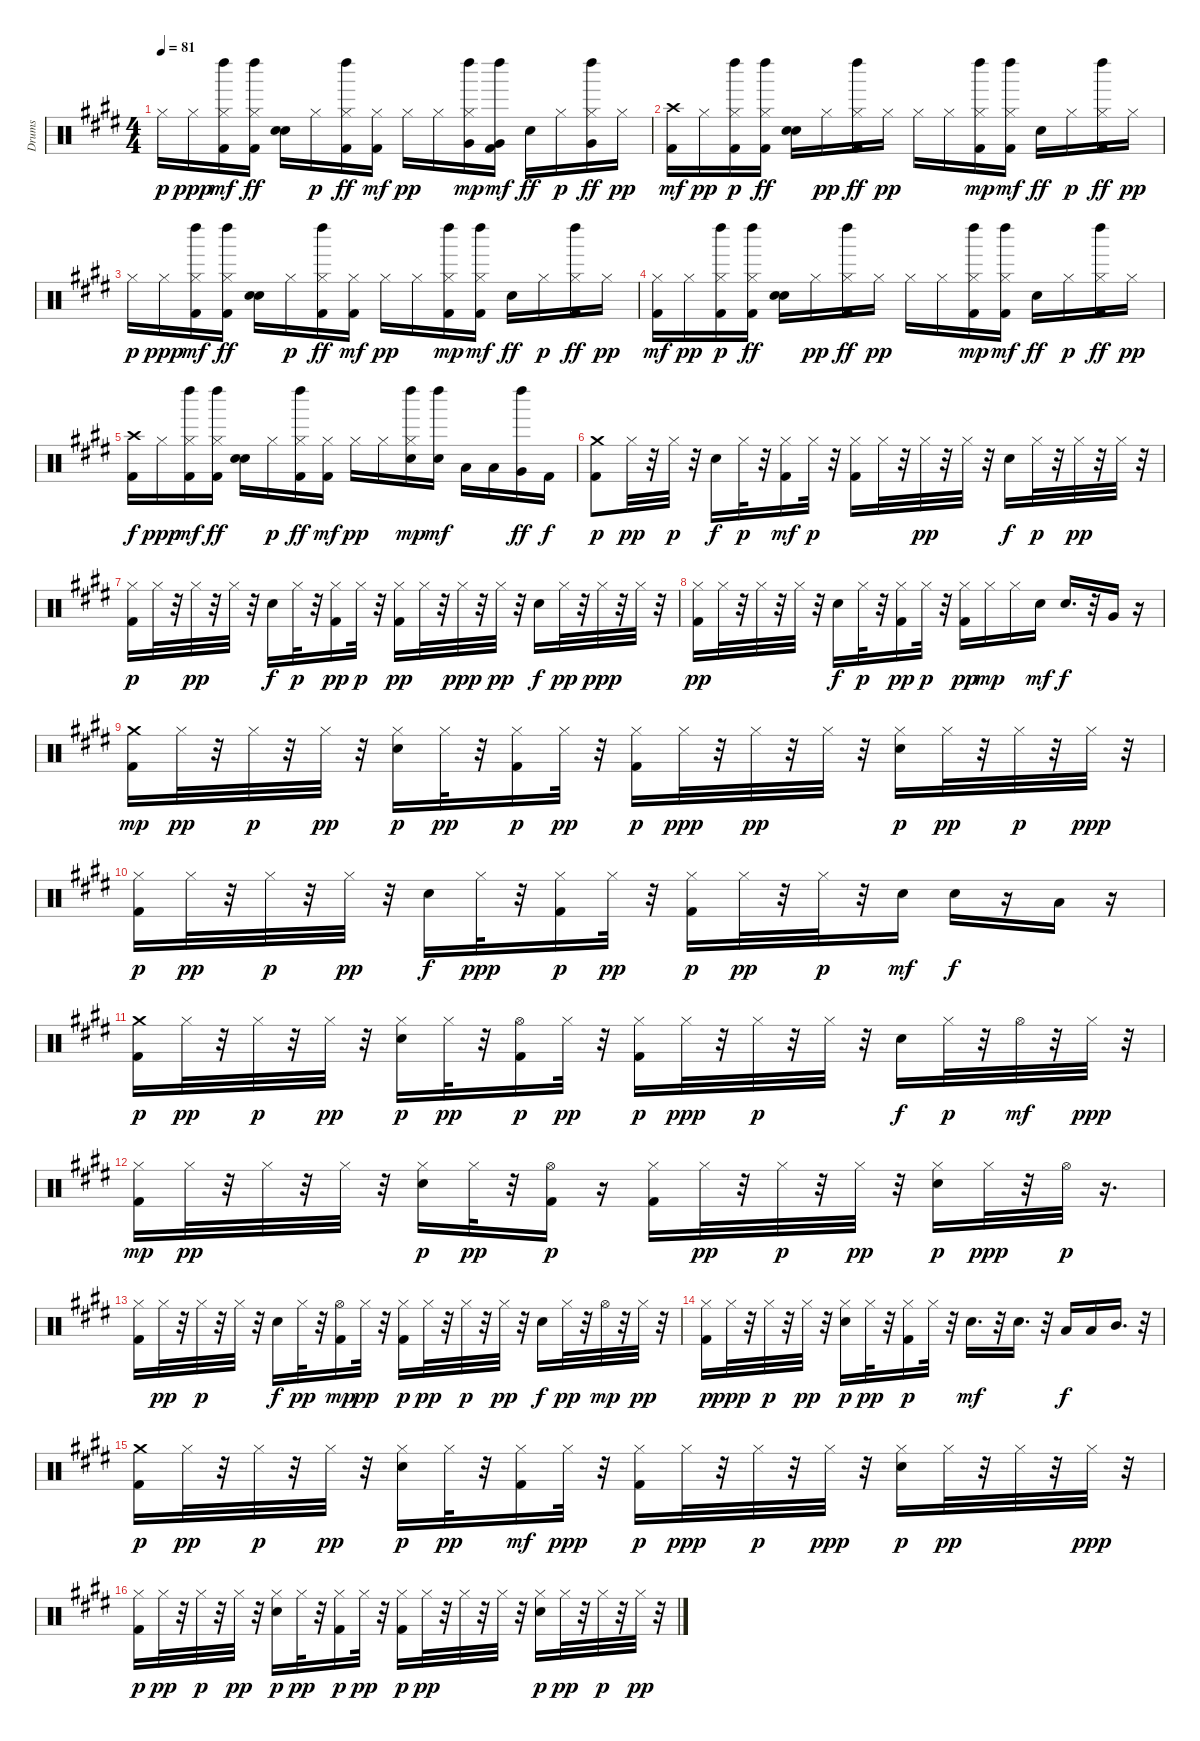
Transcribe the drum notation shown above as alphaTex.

\track ("Drums" "Drums") {instrument percussion}
\staff {score}
\articulation defaults
\ts (4 4)
\tempo 81
\clef neutral
\ks c#minor "Hi-Hat (closed)".16{dy p} "Hi-Hat (closed)".16{dy ppp}
("Hi-Hat (closed)" "Kick (hit) 2" "Left Maraca (hit)").16{dy mf} ("Hi-Hat (closed)" "Kick (hit) 2" "Left Maraca (hit)").16{dy ff} ("Snare (hit) 2" "Hand Clap (hit)").16 "Hi-Hat (closed)".16{dy p} ("Hi-Hat (closed)" "Kick (hit) 2" "Left Maraca (hit)").16{dy ff} ("Hi-Hat (closed)" "Kick (hit) 2").16{dy mf} "Hi-Hat (closed)".16{dy pp} "Hi-Hat (closed)".16 ("Hi-Hat (closed)" "Very Low Tom (hit)" "Left Maraca (hit)").16{dy mp} ("Very Low Tom (hit)" "Kick (hit) 2" "Left Maraca (hit)").16{dy mf} "Snare (hit) 2".16{dy ff} "Hi-Hat (closed)".16{dy p} ("Hi-Hat (closed)" "Very Low Tom (hit)" "Left Maraca (hit)").16{dy ff} "Hi-Hat (closed)".16{dy pp} |
("Crash high (hit)" "Kick (hit) 2").16{dy mf} "Hi-Hat (closed)".16{dy pp} ("Hi-Hat (closed)" "Kick (hit) 2" "Left Maraca (hit)").16{dy p} ("Hi-Hat (closed)" "Kick (hit) 2" "Left Maraca (hit)").16{dy ff} ("Snare (hit) 2" "Hand Clap (hit)").16 "Hi-Hat (closed)".16{dy pp} ("Hi-Hat (closed)" "Kick (hit) 2" "Left Maraca (hit)").16{dy ff} "Hi-Hat (closed)".16{dy pp} "Hi-Hat (closed)".16 "Hi-Hat (closed)".16 ("Hi-Hat (closed)" "Kick (hit) 2" "Left Maraca (hit)").16{dy mp} ("Hi-Hat (closed)" "Kick (hit) 2" "Left Maraca (hit)").16{dy mf} "Snare (hit) 2".16{dy ff} "Hi-Hat (closed)".16{dy p} ("Hi-Hat (closed)" "Kick (hit) 2" "Left Maraca (hit)").16{dy ff} "Hi-Hat (closed)".16{dy pp} |
\ks e "Hi-Hat (closed)".16{dy p} "Hi-Hat (closed)".16{dy ppp}
("Hi-Hat (closed)" "Kick (hit) 2" "Left Maraca (hit)").16{dy mf} ("Hi-Hat (closed)" "Kick (hit) 2" "Left Maraca (hit)").16{dy ff} ("Snare (hit) 2" "Hand Clap (hit)").16 "Hi-Hat (closed)".16{dy p} ("Hi-Hat (closed)" "Kick (hit) 2" "Left Maraca (hit)").16{dy ff} ("Hi-Hat (closed)" "Kick (hit) 2").16{dy mf} "Hi-Hat (closed)".16{dy pp} "Hi-Hat (closed)".16 ("Hi-Hat (closed)" "Kick (hit) 2" "Left Maraca (hit)").16{dy mp} ("Hi-Hat (closed)" "Kick (hit) 2" "Left Maraca (hit)").16{dy mf} "Snare (hit) 2".16{dy ff} "Hi-Hat (closed)".16{dy p} ("Hi-Hat (closed)" "Kick (hit) 2" "Left Maraca (hit)").16{dy ff} "Hi-Hat (closed)".16{dy pp} |
\ks c#minor
("Hi-Hat (closed)" "Kick (hit) 2").16{dy mf} "Hi-Hat (closed)".16{dy pp} ("Hi-Hat (closed)" "Kick (hit) 2" "Left Maraca (hit)").16{dy p} ("Hi-Hat (closed)" "Kick (hit) 2" "Left Maraca (hit)").16{dy ff} ("Snare (hit) 2" "Hand Clap (hit)").16 "Hi-Hat (closed)".16{dy pp} ("Hi-Hat (closed)" "Kick (hit) 2" "Left Maraca (hit)").16{dy ff} "Hi-Hat (closed)".16{dy pp} "Hi-Hat (closed)".16 "Hi-Hat (closed)".16 ("Hi-Hat (closed)" "Kick (hit) 2" "Left Maraca (hit)").16{dy mp} ("Hi-Hat (closed)" "Kick (hit) 2" "Left Maraca (hit)").16{dy mf} "Snare (hit) 2".16{dy ff} "Hi-Hat (closed)".16{dy p} ("Hi-Hat (closed)" "Kick (hit) 2" "Left Maraca (hit)").16{dy ff} "Hi-Hat (closed)".16{dy pp} |
("Crash high (hit)" "Kick (hit) 2").16{dy f} "Hi-Hat (closed)".16{dy ppp} ("Hi-Hat (closed)" "Kick (hit) 2" "Left Maraca (hit)").16{dy mf} ("Hi-Hat (closed)" "Kick (hit) 2" "Left Maraca (hit)").16{dy ff} ("Snare (hit) 2" "Hand Clap (hit)").16 "Hi-Hat (closed)".16{dy p} ("Hi-Hat (closed)" "Kick (hit) 2" "Left Maraca (hit)").16{dy ff} ("Hi-Hat (closed)" "Kick (hit) 2").16{dy mf} "Hi-Hat (closed)".16{dy pp} "Hi-Hat (closed)".16 ("Hi-Hat (closed)" "Snare (hit) 2" "Left Maraca (hit)").16{dy mp} ("Snare (hit) 2" "Left Maraca (hit)").16{dy mf} "Low Tom (hit)".16 "Low Tom (hit)".16 ("Very Low Tom (hit)" "Left Maraca (hit)").16{dy ff} "Kick (hit) 2".16{dy f} |
\ks e
("Kick (hit) 2" "Crash medium (hit)").8{dy p} "Hi-Hat (closed)".32{dy pp} r.32 "Hi-Hat (closed)".32{dy p} r.32 "Snare (hit) 2".16{dy f} "Hi-Hat (closed)".32{dy p} r.32 ("Hi-Hat (closed)" "Kick (hit) 2").16{dy mf} "Hi-Hat (closed)".32{dy p} r.32 ("Hi-Hat (closed)" "Kick (hit) 2").16 "Hi-Hat (closed)".32 r.32 "Hi-Hat (closed)".32{dy pp} r.32 "Hi-Hat (closed)".32 r.32 "Snare (hit) 2".16{dy f} "Hi-Hat (closed)".32{dy p} r.32 "Hi-Hat (closed)".32{dy pp} r.32 "Hi-Hat (closed)".32 r.32 |
\ks c#minor
("Hi-Hat (closed)" "Kick (hit) 2").16{dy p} "Hi-Hat (closed)".32 r.32 "Hi-Hat (closed)".32{dy pp} r.32 "Hi-Hat (closed)".32 r.32 "Snare (hit) 2".16{dy f} "Hi-Hat (closed)".32{dy p} r.32 ("Hi-Hat (closed)" "Kick (hit) 2").16{dy pp} "Hi-Hat (closed)".32{dy p} r.32 ("Hi-Hat (closed)" "Kick (hit) 2").16{dy pp} "Hi-Hat (closed)".32 r.32 "Hi-Hat (closed)".32{dy ppp} r.32 "Hi-Hat (closed)".32{dy pp} r.32 "Snare (hit) 2".16{dy f} "Hi-Hat (closed)".32{dy pp} r.32 "Hi-Hat (closed)".32{dy ppp} r.32 "Hi-Hat (closed)".32 r.32 |
("Hi-Hat (closed)" "Kick (hit) 2").16{dy pp} "Hi-Hat (closed)".32 r.32 "Hi-Hat (closed)".32 r.32 "Hi-Hat (closed)".32 r.32 "Snare (hit) 2".16{dy f} "Hi-Hat (closed)".32{dy p} r.32 ("Hi-Hat (closed)" "Kick (hit) 2").16{dy pp} "Hi-Hat (closed)".32{dy p} r.32 ("Hi-Hat (closed)" "Kick (hit) 2").16{dy pp} "Hi-Hat (closed)".16{dy mp} "Hi-Hat (closed)".16 "Snare (hit) 2".16{dy mf} "Snare (hit) 2".16{d dy f} r.32 "Very Low Tom (hit)".16 r.16 |
("Kick (hit) 2" "Crash medium (hit)").16{dy mp} "Hi-Hat (closed)".32{dy pp} r.32 "Hi-Hat (closed)".32{dy p} r.32 "Hi-Hat (closed)".32{dy pp} r.32 ("Snare (hit) 2" "Hi-Hat (closed)").16{dy p} "Hi-Hat (closed)".32{dy pp} r.32 ("Hi-Hat (closed)" "Kick (hit) 2").16{dy p} "Hi-Hat (closed)".32{dy pp} r.32 ("Hi-Hat (closed)" "Kick (hit) 2").16{dy p} "Hi-Hat (closed)".32{dy ppp} r.32 "Hi-Hat (closed)".32{dy pp} r.32 "Hi-Hat (closed)".32 r.32 ("Snare (hit) 2" "Hi-Hat (closed)").16{dy p} "Hi-Hat (closed)".32{dy pp} r.32 "Hi-Hat (closed)".32{dy p} r.32 "Hi-Hat (closed)".32{dy ppp} r.32 |
\ks e
("Hi-Hat (closed)" "Kick (hit) 2").16{dy p} "Hi-Hat (closed)".32{dy pp} r.32 "Hi-Hat (closed)".32{dy p} r.32 "Hi-Hat (closed)".32{dy pp} r.32 "Snare (hit) 2".16{dy f} "Hi-Hat (closed)".32{dy ppp} r.32 ("Hi-Hat (closed)" "Kick (hit) 2").16{dy p} "Hi-Hat (closed)".32{dy pp} r.32 ("Hi-Hat (closed)" "Kick (hit) 2").16{dy p} "Hi-Hat (closed)".32{dy pp} r.32 "Hi-Hat (closed)".32{dy p} r.32 "Snare (hit) 2".16{dy mf} "Snare (hit) 2".16{dy f} r.16 "Low Tom (hit)".16 r.16 |
\ks c#minor
("Kick (hit) 2" "Crash medium (hit)").16{dy p} "Hi-Hat (closed)".32{dy pp} r.32 "Hi-Hat (closed)".32{dy p} r.32 "Hi-Hat (closed)".32{dy pp} r.32 ("Snare (hit) 2" "Hi-Hat (closed)").16{dy p} "Hi-Hat (closed)".32{dy pp} r.32 ("Hi-Hat (open)" "Kick (hit) 2").16{dy p} "Hi-Hat (closed)".32{dy pp} r.32 ("Hi-Hat (closed)" "Kick (hit) 2").16{dy p} "Hi-Hat (closed)".32{dy ppp} r.32 "Hi-Hat (closed)".32{dy p} r.32 "Hi-Hat (closed)".32 r.32 "Snare (hit) 2".16{dy f} "Hi-Hat (closed)".32{dy p} r.32 "Hi-Hat (open)".32{dy mf} r.32 "Hi-Hat (closed)".32{dy ppp} r.32 |
("Hi-Hat (closed)" "Kick (hit) 2").16{dy mp} "Hi-Hat (closed)".32{dy pp} r.32 "Hi-Hat (closed)".32 r.32 "Hi-Hat (closed)".32 r.32 ("Snare (hit) 2" "Hi-Hat (closed)").16{dy p} "Hi-Hat (closed)".32{dy pp} r.32 ("Hi-Hat (open)" "Kick (hit) 2").16{dy p} r.16 ("Hi-Hat (closed)" "Kick (hit) 2").16 "Hi-Hat (closed)".32{dy pp} r.32 "Hi-Hat (closed)".32{dy p} r.32 "Hi-Hat (closed)".32{dy pp} r.32 ("Snare (hit) 2" "Hi-Hat (closed)").16{dy p} "Hi-Hat (closed)".32{dy ppp} r.32 "Hi-Hat (open)".32{dy p} r.16{d} |
("Hi-Hat (closed)" "Kick (hit) 2").16 "Hi-Hat (closed)".32{dy pp} r.32 "Hi-Hat (closed)".32{dy p} r.32 "Hi-Hat (closed)".32 r.32 "Snare (hit) 2".16{dy f} "Hi-Hat (closed)".32{dy pp} r.32 ("Hi-Hat (open)" "Kick (hit) 2").16{dy mp} "Hi-Hat (closed)".32{dy pp} r.32 ("Hi-Hat (closed)" "Kick (hit) 2").16{dy p} "Hi-Hat (closed)".32{dy pp} r.32 "Hi-Hat (closed)".32{dy p} r.32 "Hi-Hat (closed)".32{dy pp} r.32 "Snare (hit) 2".16{dy f} "Hi-Hat (closed)".32{dy pp} r.32 "Hi-Hat (open)".32{dy mp} r.32 "Hi-Hat (closed)".32{dy pp} r.32 |
\ks e
("Hi-Hat (closed)" "Kick (hit) 2").16{dy p} "Hi-Hat (closed)".32{dy ppp} r.32 "Hi-Hat (closed)".32{dy p} r.32 "Hi-Hat (closed)".32{dy pp} r.32 ("Snare (hit) 2" "Hi-Hat (closed)").16{dy p} "Hi-Hat (closed)".32{dy pp} r.32 ("Hi-Hat (closed)" "Kick (hit) 2").16{dy p} "Hi-Hat (closed)".32 r.32 "Snare (hit) 2".16{d dy mf} r.32 "Snare (hit) 2".16{d} r.32 "Low Tom (hit)".16{dy f} "Low Tom (hit)".16 "Mid Tom (hit)".16{d} r.32 |
\ks c#minor
("Kick (hit) 2" "Crash medium (hit)").16{dy p} "Hi-Hat (closed)".32{dy pp} r.32 "Hi-Hat (closed)".32{dy p} r.32 "Hi-Hat (closed)".32{dy pp} r.32 ("Snare (hit) 2" "Hi-Hat (closed)").16{dy p} "Hi-Hat (closed)".32{dy pp} r.32 ("Hi-Hat (closed)" "Kick (hit) 2").16{dy mf} "Hi-Hat (closed)".32{dy ppp} r.32 ("Hi-Hat (closed)" "Kick (hit) 2").16{dy p} "Hi-Hat (closed)".32{dy ppp} r.32 "Hi-Hat (closed)".32{dy p} r.32 "Hi-Hat (closed)".32{dy ppp} r.32 ("Snare (hit) 2" "Hi-Hat (closed)").16{dy p} "Hi-Hat (closed)".32{dy pp} r.32 "Hi-Hat (closed)".32 r.32 "Hi-Hat (closed)".32{dy ppp} r.32 |
("Hi-Hat (closed)" "Kick (hit) 2").16{dy p} "Hi-Hat (closed)".32{dy pp} r.32 "Hi-Hat (closed)".32{dy p} r.32 "Hi-Hat (closed)".32{dy pp} r.32 ("Snare (hit) 2" "Hi-Hat (closed)").16{dy p} "Hi-Hat (closed)".32{dy pp} r.32 ("Hi-Hat (closed)" "Kick (hit) 2").16{dy p} "Hi-Hat (closed)".32{dy pp} r.32 ("Hi-Hat (closed)" "Kick (hit) 2").16{dy p} "Hi-Hat (closed)".32{dy pp} r.32 "Hi-Hat (closed)".32 r.32 "Hi-Hat (closed)".32 r.32 ("Snare (hit) 2" "Hi-Hat (closed)").16{dy p} "Hi-Hat (closed)".32{dy pp} r.32 "Hi-Hat (closed)".32{dy p} r.32 "Hi-Hat (closed)".32{dy pp} r.32
